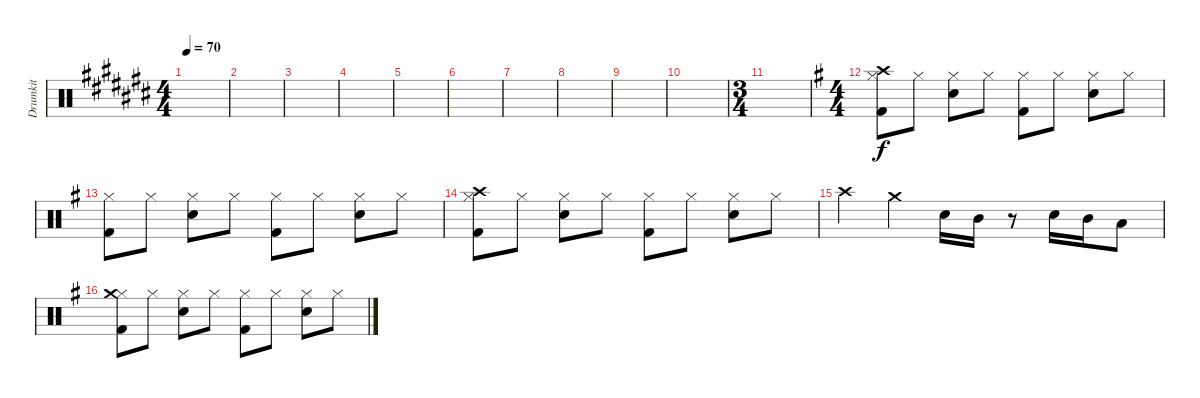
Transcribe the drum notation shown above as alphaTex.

\track ("Drumkit" "Drumkit") {instrument percussion}
\staff {score}
\articulation defaults
\ts (4 4)
\tempo 70
\clef neutral
\ks a#minor
|
|
|
|
|
|
|
|
|
|
\ts (3 4)
|
\ts (4 4)
\ks eminor
("Hi-Hat (closed)" "Kick (hit) 2" "Crash high (hit)").8 "Hi-Hat (closed)".8 ("Hi-Hat (closed)" "Snare (hit) 2").8 "Hi-Hat (closed)".8 ("Hi-Hat (closed)" "Kick (hit) 2").8 "Hi-Hat (closed)".8 ("Hi-Hat (closed)" "Snare (hit) 2").8 "Hi-Hat (closed)".8 |
("Hi-Hat (closed)" "Kick (hit) 2").8 "Hi-Hat (closed)".8 ("Hi-Hat (closed)" "Snare (hit) 2").8 "Hi-Hat (closed)".8 ("Hi-Hat (closed)" "Kick (hit) 2").8 "Hi-Hat (closed)".8 ("Hi-Hat (closed)" "Snare (hit) 2").8 "Hi-Hat (closed)".8 |
("Hi-Hat (closed)" "Kick (hit) 2" "Crash high (hit)").8 "Hi-Hat (closed)".8 ("Hi-Hat (closed)" "Snare (hit) 2").8 "Hi-Hat (closed)".8 ("Hi-Hat (closed)" "Kick (hit) 2").8 "Hi-Hat (closed)".8 ("Hi-Hat (closed)" "Snare (hit) 2").8 "Hi-Hat (closed)".8 |
"Crash high (hit)".4 "Crash medium (hit)".4 "Snare (hit) 2".16 "Mid Tom (hit)".16 r.8 "Snare (hit) 2".16 "Mid Tom (hit)".16 "Low Tom (hit)".8 |
("Hi-Hat (closed)" "Kick (hit) 2" "Crash medium (hit)").8 "Hi-Hat (closed)".8 ("Hi-Hat (closed)" "Snare (hit) 2").8 "Hi-Hat (closed)".8 ("Hi-Hat (closed)" "Kick (hit) 2").8 "Hi-Hat (closed)".8 ("Hi-Hat (closed)" "Snare (hit) 2").8 "Hi-Hat (closed)".8
